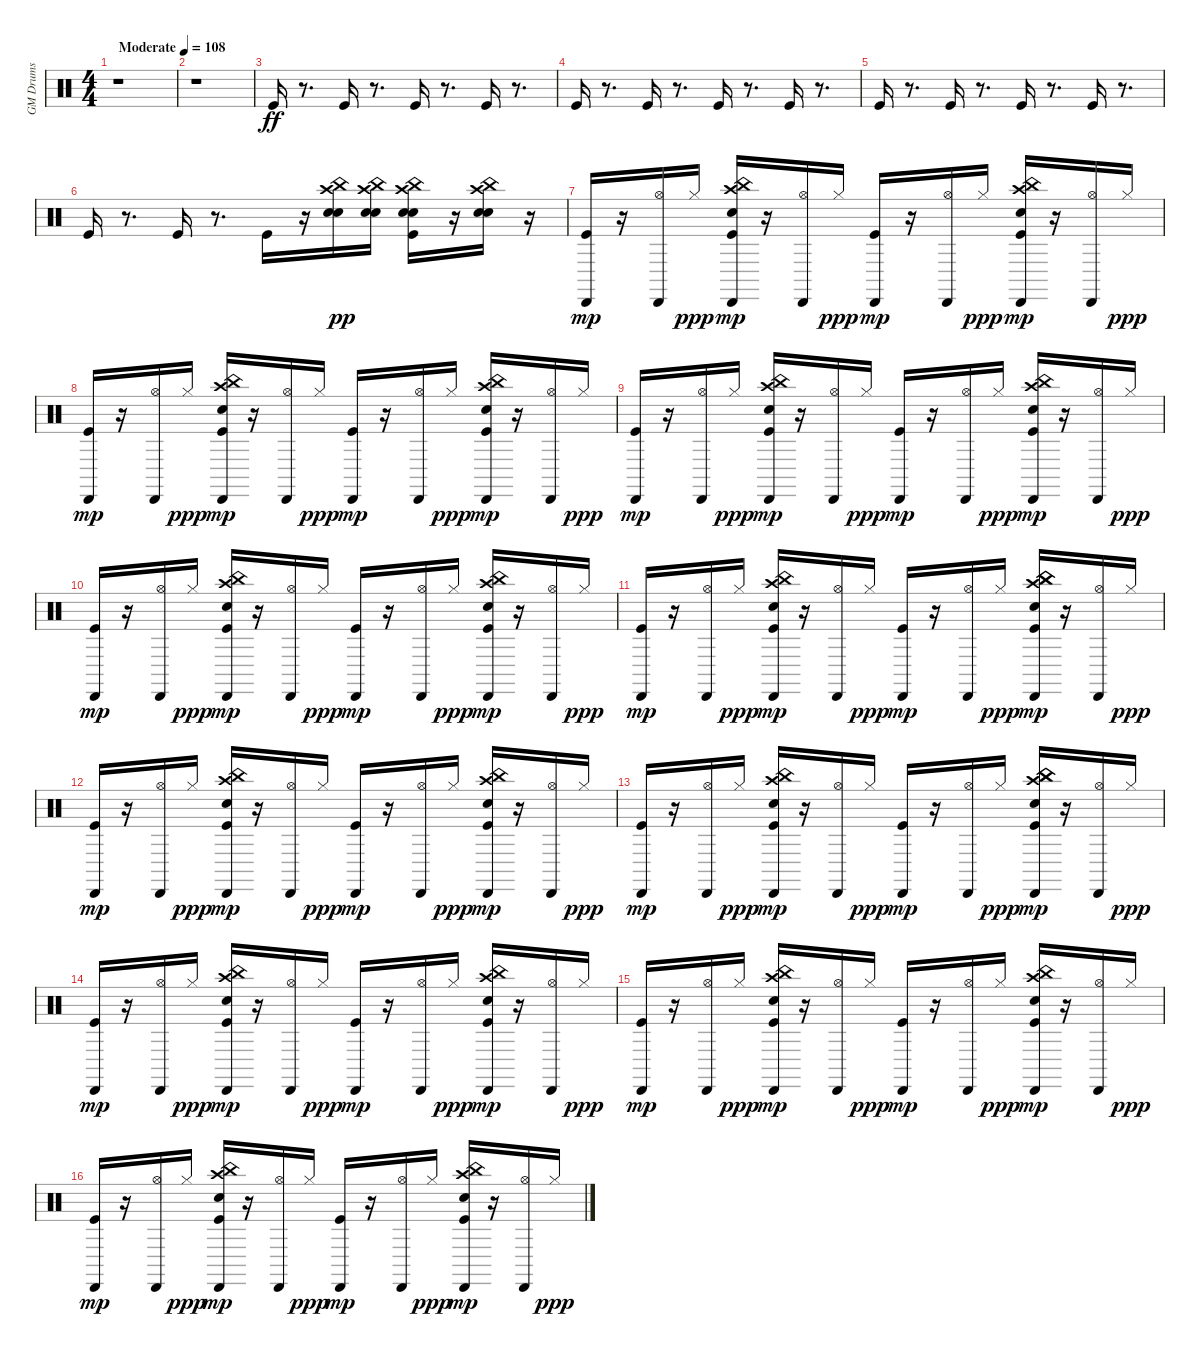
\track ("GM Drums" "GM Drums") {instrument percussion}
\staff {score}
\articulation defaults
\ts (4 4)
\tempo (108 "Moderate")
\clef neutral
\ks c
r.1{dy ff} |
r.1 |
"Kick (hit)".16 r.8{d} "Kick (hit)".16 r.8{d} "Kick (hit)".16 r.8{d} "Kick (hit)".16 r.8{d} |
"Kick (hit)".16 r.8{d} "Kick (hit)".16 r.8{d} "Kick (hit)".16 r.8{d} "Kick (hit)".16 r.8{d} |
"Kick (hit)".16 r.8{d} "Kick (hit)".16 r.8{d} "Kick (hit)".16 r.8{d} "Kick (hit)".16 r.8{d} |
"Kick (hit)".16 r.8{d} "Kick (hit)".16 r.8{d} "Kick (hit)".16 r.16 ("Snare (hit) 2" "Electric Snare (hit)" "Crash high (hit)" "China (hit)").16{dy pp} ("Snare (hit) 2" "Electric Snare (hit)" "Crash high (hit)" "China (hit)").16 ("Kick (hit)" "Snare (hit) 2" "Electric Snare (hit)" "Crash high (hit)" "China (hit)").16 r.16 ("Snare (hit) 2" "Electric Snare (hit)" "Crash high (hit)" "China (hit)").16 r.16 |
("Kick (hit)" "Cabasa (hit)").16{dy mp} r.16 ("Hi-Hat (open)" "Cabasa (hit)").16 "Hi-Hat (closed)".16{dy ppp} ("Kick (hit)" "Electric Snare (hit)" "Crash high (hit)" "China (hit)" "Cabasa (hit)").16{dy mp} r.16 ("Hi-Hat (open)" "Cabasa (hit)").16 "Hi-Hat (closed)".16{dy ppp} ("Kick (hit)" "Cabasa (hit)").16{dy mp} r.16 ("Hi-Hat (open)" "Cabasa (hit)").16 "Hi-Hat (closed)".16{dy ppp} ("Kick (hit)" "Electric Snare (hit)" "Crash high (hit)" "China (hit)" "Cabasa (hit)").16{dy mp} r.16 ("Hi-Hat (open)" "Cabasa (hit)").16 "Hi-Hat (closed)".16{dy ppp} |
("Kick (hit)" "Cabasa (hit)").16{dy mp} r.16 ("Hi-Hat (open)" "Cabasa (hit)").16 "Hi-Hat (closed)".16{dy ppp} ("Kick (hit)" "Electric Snare (hit)" "Crash high (hit)" "China (hit)" "Cabasa (hit)").16{dy mp} r.16 ("Hi-Hat (open)" "Cabasa (hit)").16 "Hi-Hat (closed)".16{dy ppp} ("Kick (hit)" "Cabasa (hit)").16{dy mp} r.16 ("Hi-Hat (open)" "Cabasa (hit)").16 "Hi-Hat (closed)".16{dy ppp} ("Kick (hit)" "Electric Snare (hit)" "Crash high (hit)" "China (hit)" "Cabasa (hit)").16{dy mp} r.16 ("Hi-Hat (open)" "Cabasa (hit)").16 "Hi-Hat (closed)".16{dy ppp} |
("Kick (hit)" "Cabasa (hit)").16{dy mp} r.16 ("Hi-Hat (open)" "Cabasa (hit)").16 "Hi-Hat (closed)".16{dy ppp} ("Kick (hit)" "Electric Snare (hit)" "Crash high (hit)" "China (hit)" "Cabasa (hit)").16{dy mp} r.16 ("Hi-Hat (open)" "Cabasa (hit)").16 "Hi-Hat (closed)".16{dy ppp} ("Kick (hit)" "Cabasa (hit)").16{dy mp} r.16 ("Hi-Hat (open)" "Cabasa (hit)").16 "Hi-Hat (closed)".16{dy ppp} ("Kick (hit)" "Electric Snare (hit)" "Crash high (hit)" "China (hit)" "Cabasa (hit)").16{dy mp} r.16 ("Hi-Hat (open)" "Cabasa (hit)").16 "Hi-Hat (closed)".16{dy ppp} |
("Kick (hit)" "Cabasa (hit)").16{dy mp} r.16 ("Hi-Hat (open)" "Cabasa (hit)").16 "Hi-Hat (closed)".16{dy ppp} ("Kick (hit)" "Electric Snare (hit)" "Crash high (hit)" "China (hit)" "Cabasa (hit)").16{dy mp} r.16 ("Hi-Hat (open)" "Cabasa (hit)").16 "Hi-Hat (closed)".16{dy ppp} ("Kick (hit)" "Cabasa (hit)").16{dy mp} r.16 ("Hi-Hat (open)" "Cabasa (hit)").16 "Hi-Hat (closed)".16{dy ppp} ("Kick (hit)" "Electric Snare (hit)" "Crash high (hit)" "China (hit)" "Cabasa (hit)").16{dy mp} r.16 ("Hi-Hat (open)" "Cabasa (hit)").16 "Hi-Hat (closed)".16{dy ppp} |
("Kick (hit)" "Cabasa (hit)").16{dy mp} r.16 ("Hi-Hat (open)" "Cabasa (hit)").16 "Hi-Hat (closed)".16{dy ppp} ("Kick (hit)" "Electric Snare (hit)" "Crash high (hit)" "China (hit)" "Cabasa (hit)").16{dy mp} r.16 ("Hi-Hat (open)" "Cabasa (hit)").16 "Hi-Hat (closed)".16{dy ppp} ("Kick (hit)" "Cabasa (hit)").16{dy mp} r.16 ("Hi-Hat (open)" "Cabasa (hit)").16 "Hi-Hat (closed)".16{dy ppp} ("Kick (hit)" "Electric Snare (hit)" "Crash high (hit)" "China (hit)" "China (hit)" "Cabasa (hit)").16{dy mp} r.16 ("Hi-Hat (open)" "Cabasa (hit)").16 "Hi-Hat (closed)".16{dy ppp} |
("Kick (hit)" "Cabasa (hit)").16{dy mp} r.16 ("Hi-Hat (open)" "Cabasa (hit)").16 "Hi-Hat (closed)".16{dy ppp} ("Kick (hit)" "Electric Snare (hit)" "Crash high (hit)" "China (hit)" "Cabasa (hit)").16{dy mp} r.16 ("Hi-Hat (open)" "Cabasa (hit)").16 "Hi-Hat (closed)".16{dy ppp} ("Kick (hit)" "Cabasa (hit)").16{dy mp} r.16 ("Hi-Hat (open)" "Cabasa (hit)").16 "Hi-Hat (closed)".16{dy ppp} ("Kick (hit)" "Electric Snare (hit)" "Crash high (hit)" "China (hit)" "Cabasa (hit)").16{dy mp} r.16 ("Hi-Hat (open)" "Cabasa (hit)").16 "Hi-Hat (closed)".16{dy ppp} |
("Kick (hit)" "Cabasa (hit)").16{dy mp} r.16 ("Hi-Hat (open)" "Cabasa (hit)").16 "Hi-Hat (closed)".16{dy ppp} ("Kick (hit)" "Electric Snare (hit)" "Crash high (hit)" "China (hit)" "Cabasa (hit)").16{dy mp} r.16 ("Hi-Hat (open)" "Cabasa (hit)").16 "Hi-Hat (closed)".16{dy ppp} ("Kick (hit)" "Cabasa (hit)").16{dy mp} r.16 ("Hi-Hat (open)" "Cabasa (hit)").16 "Hi-Hat (closed)".16{dy ppp} ("Kick (hit)" "Electric Snare (hit)" "Crash high (hit)" "China (hit)" "China (hit)" "Cabasa (hit)").16{dy mp} r.16 ("Hi-Hat (open)" "Cabasa (hit)").16 "Hi-Hat (closed)".16{dy ppp} |
("Kick (hit)" "Cabasa (hit)").16{dy mp} r.16 ("Hi-Hat (open)" "Cabasa (hit)").16 "Hi-Hat (closed)".16{dy ppp} ("Kick (hit)" "Electric Snare (hit)" "Crash high (hit)" "China (hit)" "Cabasa (hit)").16{dy mp} r.16 ("Hi-Hat (open)" "Cabasa (hit)").16 "Hi-Hat (closed)".16{dy ppp} ("Kick (hit)" "Cabasa (hit)").16{dy mp} r.16 ("Hi-Hat (open)" "Cabasa (hit)").16 "Hi-Hat (closed)".16{dy ppp} ("Kick (hit)" "Electric Snare (hit)" "Crash high (hit)" "China (hit)" "Cabasa (hit)").16{dy mp} r.16 ("Hi-Hat (open)" "Cabasa (hit)").16 "Hi-Hat (closed)".16{dy ppp} |
("Kick (hit)" "Cabasa (hit)").16{dy mp} r.16 ("Hi-Hat (open)" "Cabasa (hit)").16 "Hi-Hat (closed)".16{dy ppp} ("Kick (hit)" "Electric Snare (hit)" "Crash high (hit)" "China (hit)" "Cabasa (hit)").16{dy mp} r.16 ("Hi-Hat (open)" "Cabasa (hit)").16 "Hi-Hat (closed)".16{dy ppp} ("Kick (hit)" "Cabasa (hit)").16{dy mp} r.16 ("Hi-Hat (open)" "Cabasa (hit)").16 "Hi-Hat (closed)".16{dy ppp} ("Kick (hit)" "Electric Snare (hit)" "Crash high (hit)" "China (hit)" "Cabasa (hit)").16{dy mp} r.16 ("Hi-Hat (open)" "Cabasa (hit)").16 "Hi-Hat (closed)".16{dy ppp} |
("Kick (hit)" "Cabasa (hit)").16{dy mp} r.16 ("Hi-Hat (open)" "Cabasa (hit)").16 "Hi-Hat (closed)".16{dy ppp} ("Kick (hit)" "Electric Snare (hit)" "Crash high (hit)" "China (hit)" "Cabasa (hit)").16{dy mp} r.16 ("Hi-Hat (open)" "Cabasa (hit)").16 "Hi-Hat (closed)".16{dy ppp} ("Kick (hit)" "Cabasa (hit)").16{dy mp} r.16 ("Hi-Hat (open)" "Cabasa (hit)").16 "Hi-Hat (closed)".16{dy ppp} ("Kick (hit)" "Electric Snare (hit)" "Crash high (hit)" "China (hit)" "Cabasa (hit)").16{dy mp} r.16 ("Hi-Hat (open)" "Cabasa (hit)").16 "Hi-Hat (closed)".16{dy ppp}
